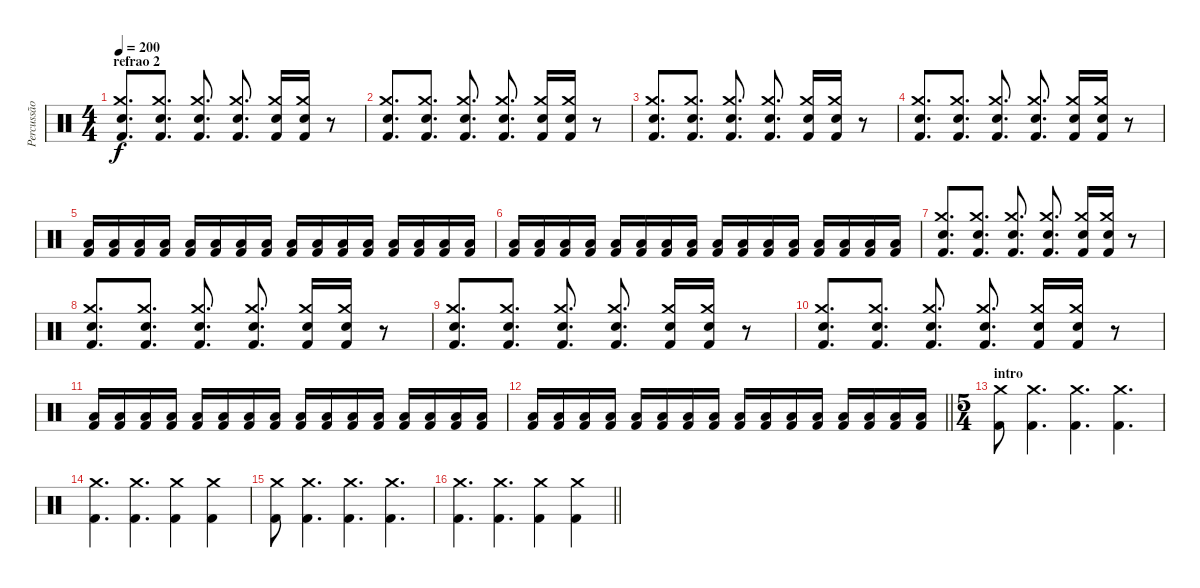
\track ("Percussão" "Percussão") {instrument percussion}
\staff {score}
\articulation defaults
\ts (4 4)
\section ("" "refrao 2")
\tempo 200
\clef neutral
\ks c
("Kick (hit) 2" "Crash medium (hit)" "Snare (hit) 2").8{d dy f} ("Kick (hit) 2" "Crash medium (hit)" "Snare (hit) 2").8{d} ("Kick (hit) 2" "Crash medium (hit)" "Snare (hit) 2").8{d} ("Kick (hit) 2" "Crash medium (hit)" "Snare (hit) 2").8{d} ("Kick (hit) 2" "Crash medium (hit)" "Snare (hit) 2").16 ("Kick (hit) 2" "Crash medium (hit)" "Snare (hit) 2").16 r.8 |
("Kick (hit) 2" "Crash medium (hit)" "Snare (hit) 2").8{d} ("Kick (hit) 2" "Crash medium (hit)" "Snare (hit) 2").8{d} ("Kick (hit) 2" "Crash medium (hit)" "Snare (hit) 2").8{d} ("Kick (hit) 2" "Crash medium (hit)" "Snare (hit) 2").8{d} ("Kick (hit) 2" "Crash medium (hit)" "Snare (hit) 2").16 ("Kick (hit) 2" "Crash medium (hit)" "Snare (hit) 2").16 r.8 |
("Kick (hit) 2" "Crash medium (hit)" "Snare (hit) 2").8{d} ("Kick (hit) 2" "Crash medium (hit)" "Snare (hit) 2").8{d} ("Kick (hit) 2" "Crash medium (hit)" "Snare (hit) 2").8{d} ("Kick (hit) 2" "Crash medium (hit)" "Snare (hit) 2").8{d} ("Kick (hit) 2" "Crash medium (hit)" "Snare (hit) 2").16 ("Kick (hit) 2" "Crash medium (hit)" "Snare (hit) 2").16 r.8 |
("Kick (hit) 2" "Crash medium (hit)" "Snare (hit) 2").8{d} ("Kick (hit) 2" "Crash medium (hit)" "Snare (hit) 2").8{d} ("Kick (hit) 2" "Crash medium (hit)" "Snare (hit) 2").8{d} ("Kick (hit) 2" "Crash medium (hit)" "Snare (hit) 2").8{d} ("Kick (hit) 2" "Crash medium (hit)" "Snare (hit) 2").16 ("Kick (hit) 2" "Crash medium (hit)" "Snare (hit) 2").16 r.8 |
("Kick (hit) 2" "Low Tom (hit)").16 ("Kick (hit) 2" "Low Tom (hit)").16 ("Kick (hit) 2" "Low Floor Tom (hit)").16 ("Kick (hit) 2" "Low Floor Tom (hit)").16 ("Kick (hit) 2" "Low Floor Tom (hit)").16 ("Kick (hit) 2" "Low Floor Tom (hit)").16 ("Kick (hit) 2" "Low Tom (hit)").16 ("Kick (hit) 2" "Low Tom (hit)").16 ("Kick (hit) 2" "Low Floor Tom (hit)").16 ("Kick (hit) 2" "Low Floor Tom (hit)").16 ("Kick (hit) 2" "Low Floor Tom (hit)").16 ("Kick (hit) 2" "Low Floor Tom (hit)").16 ("Kick (hit) 2" "Low Tom (hit)").16 ("Kick (hit) 2" "Low Tom (hit)").16 ("Kick (hit) 2" "Low Floor Tom (hit)").16 ("Kick (hit) 2" "Low Floor Tom (hit)").16 |
("Kick (hit) 2" "Low Tom (hit)").16 ("Kick (hit) 2" "Low Tom (hit)").16 ("Kick (hit) 2" "Low Floor Tom (hit)").16 ("Kick (hit) 2" "Low Floor Tom (hit)").16 ("Kick (hit) 2" "Low Floor Tom (hit)").16 ("Kick (hit) 2" "Low Floor Tom (hit)").16 ("Kick (hit) 2" "Low Tom (hit)").16 ("Kick (hit) 2" "Low Tom (hit)").16 ("Kick (hit) 2" "Low Floor Tom (hit)").16 ("Kick (hit) 2" "Low Floor Tom (hit)").16 ("Kick (hit) 2" "Low Floor Tom (hit)").16 ("Kick (hit) 2" "Low Floor Tom (hit)").16 ("Kick (hit) 2" "Low Tom (hit)").16 ("Kick (hit) 2" "Low Tom (hit)").16 ("Kick (hit) 2" "Low Floor Tom (hit)").16 ("Kick (hit) 2" "Low Floor Tom (hit)").16 |
("Kick (hit) 2" "Crash medium (hit)" "Snare (hit) 2").8{d} ("Kick (hit) 2" "Crash medium (hit)" "Snare (hit) 2").8{d} ("Kick (hit) 2" "Crash medium (hit)" "Snare (hit) 2").8{d} ("Kick (hit) 2" "Crash medium (hit)" "Snare (hit) 2").8{d} ("Kick (hit) 2" "Crash medium (hit)" "Snare (hit) 2").16 ("Kick (hit) 2" "Crash medium (hit)" "Snare (hit) 2").16 r.8 |
("Kick (hit) 2" "Crash medium (hit)" "Snare (hit) 2").8{d} ("Kick (hit) 2" "Crash medium (hit)" "Snare (hit) 2").8{d} ("Kick (hit) 2" "Crash medium (hit)" "Snare (hit) 2").8{d} ("Kick (hit) 2" "Crash medium (hit)" "Snare (hit) 2").8{d} ("Kick (hit) 2" "Crash medium (hit)" "Snare (hit) 2").16 ("Kick (hit) 2" "Crash medium (hit)" "Snare (hit) 2").16 r.8 |
("Kick (hit) 2" "Crash medium (hit)" "Snare (hit) 2").8{d} ("Kick (hit) 2" "Crash medium (hit)" "Snare (hit) 2").8{d} ("Kick (hit) 2" "Crash medium (hit)" "Snare (hit) 2").8{d} ("Kick (hit) 2" "Crash medium (hit)" "Snare (hit) 2").8{d} ("Kick (hit) 2" "Crash medium (hit)" "Snare (hit) 2").16 ("Kick (hit) 2" "Crash medium (hit)" "Snare (hit) 2").16 r.8 |
("Kick (hit) 2" "Crash medium (hit)" "Snare (hit) 2").8{d} ("Kick (hit) 2" "Crash medium (hit)" "Snare (hit) 2").8{d} ("Kick (hit) 2" "Crash medium (hit)" "Snare (hit) 2").8{d} ("Kick (hit) 2" "Crash medium (hit)" "Snare (hit) 2").8{d} ("Kick (hit) 2" "Crash medium (hit)" "Snare (hit) 2").16 ("Kick (hit) 2" "Crash medium (hit)" "Snare (hit) 2").16 r.8 |
("Kick (hit) 2" "Low Tom (hit)").16 ("Kick (hit) 2" "Low Tom (hit)").16 ("Kick (hit) 2" "Low Floor Tom (hit)").16 ("Kick (hit) 2" "Low Floor Tom (hit)").16 ("Kick (hit) 2" "Low Floor Tom (hit)").16 ("Kick (hit) 2" "Low Floor Tom (hit)").16 ("Kick (hit) 2" "Low Tom (hit)").16 ("Kick (hit) 2" "Low Tom (hit)").16 ("Kick (hit) 2" "Low Floor Tom (hit)").16 ("Kick (hit) 2" "Low Floor Tom (hit)").16 ("Kick (hit) 2" "Low Floor Tom (hit)").16 ("Kick (hit) 2" "Low Floor Tom (hit)").16 ("Kick (hit) 2" "Low Tom (hit)").16 ("Kick (hit) 2" "Low Tom (hit)").16 ("Kick (hit) 2" "Low Floor Tom (hit)").16 ("Kick (hit) 2" "Low Floor Tom (hit)").16 |
\barLineRight lightlight
("Kick (hit) 2" "Low Tom (hit)").16 ("Kick (hit) 2" "Low Tom (hit)").16 ("Kick (hit) 2" "Low Floor Tom (hit)").16 ("Kick (hit) 2" "Low Floor Tom (hit)").16 ("Kick (hit) 2" "Low Floor Tom (hit)").16 ("Kick (hit) 2" "Low Floor Tom (hit)").16 ("Kick (hit) 2" "Low Tom (hit)").16 ("Kick (hit) 2" "Low Tom (hit)").16 ("Kick (hit) 2" "Low Floor Tom (hit)").16 ("Kick (hit) 2" "Low Floor Tom (hit)").16 ("Kick (hit) 2" "Low Floor Tom (hit)").16 ("Kick (hit) 2" "Low Floor Tom (hit)").16 ("Kick (hit) 2" "Low Tom (hit)").16 ("Kick (hit) 2" "Low Tom (hit)").16 ("Kick (hit) 2" "Low Floor Tom (hit)").16 ("Kick (hit) 2" "Low Floor Tom (hit)").16 |
\ts (5 4)
\section ("" "intro")
("Crash medium (hit)" "Kick (hit) 2").8 ("Crash medium (hit)" "Kick (hit) 2").4{d} ("Crash medium (hit)" "Kick (hit) 2").4{d} ("Crash medium (hit)" "Kick (hit) 2").4{d} |
("Crash medium (hit)" "Kick (hit) 2").4{d} ("Crash medium (hit)" "Kick (hit) 2").4{d} ("Crash medium (hit)" "Kick (hit) 2").4 ("Crash medium (hit)" "Kick (hit) 2").4 |
("Crash medium (hit)" "Kick (hit) 2").8 ("Crash medium (hit)" "Kick (hit) 2").4{d} ("Crash medium (hit)" "Kick (hit) 2").4{d} ("Crash medium (hit)" "Kick (hit) 2").4{d} |
\barLineRight lightlight
("Crash medium (hit)" "Kick (hit) 2").4{d} ("Crash medium (hit)" "Kick (hit) 2").4{d} ("Crash medium (hit)" "Kick (hit) 2").4 ("Crash medium (hit)" "Kick (hit) 2").4
